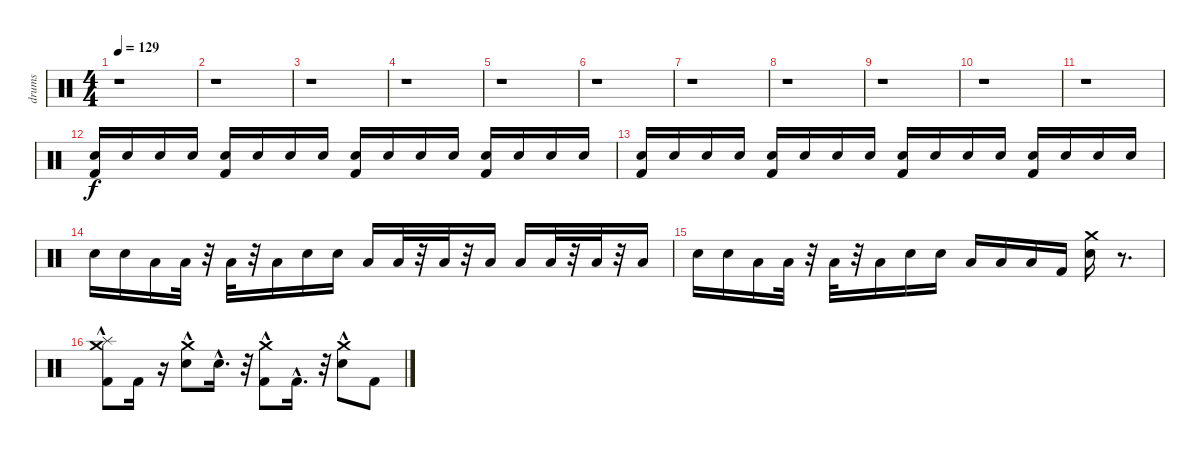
\track ("drums" "drums") {instrument percussion}
\staff {score}
\articulation defaults
\ts (4 4)
\tempo 129
\clef neutral
\ks c
r.1{dy f} |
r.1 |
r.1 |
r.1 |
r.1 |
r.1 |
r.1 |
r.1 |
r.1 |
r.1 |
r.1 |
("Kick (hit) 2" "Snare (hit) 2").16 "Snare (hit) 2".16 "Snare (hit) 2".16 "Snare (hit) 2".16 ("Kick (hit) 2" "Snare (hit) 2").16 "Snare (hit) 2".16 "Snare (hit) 2".16 "Snare (hit) 2".16 ("Kick (hit) 2" "Snare (hit) 2").16 "Snare (hit) 2".16 "Snare (hit) 2".16 "Snare (hit) 2".16 ("Kick (hit) 2" "Snare (hit) 2").16 "Snare (hit) 2".16 "Snare (hit) 2".16 "Snare (hit) 2".16 |
("Kick (hit) 2" "Snare (hit) 2").16 "Snare (hit) 2".16 "Snare (hit) 2".16 "Snare (hit) 2".16 ("Kick (hit) 2" "Snare (hit) 2").16 "Snare (hit) 2".16 "Snare (hit) 2".16 "Snare (hit) 2".16 ("Kick (hit) 2" "Snare (hit) 2").16 "Snare (hit) 2".16 "Snare (hit) 2".16 "Snare (hit) 2".16 ("Kick (hit) 2" "Snare (hit) 2").16 "Snare (hit) 2".16 "Snare (hit) 2".16 "Snare (hit) 2".16 |
"Snare (hit) 2".16 "Snare (hit) 2".16 "Low Tom (hit)".16 "Low Tom (hit)".32 r.32 "Low Tom (hit)".32 r.32 "Low Tom (hit)".16 "Snare (hit) 2".16 "Snare (hit) 2".16 "Low Tom (hit)".16 "Low Tom (hit)".32 r.32 "Low Tom (hit)".32 r.32 "Low Tom (hit)".16 "Low Floor Tom (hit)".16 "Low Floor Tom (hit)".32 r.32 "Low Floor Tom (hit)".32 r.32 "Low Floor Tom (hit)".16 |
"Snare (hit) 2".16 "Snare (hit) 2".16 "Low Tom (hit)".16 "Low Tom (hit)".32 r.32 "Low Tom (hit)".32 r.32 "Low Tom (hit)".16 "Snare (hit) 2".16 "Snare (hit) 2".16 "Low Tom (hit)".16 "Low Tom (hit)".16 "Low Floor Tom (hit)".16 "Kick (hit) 2".16 ("Snare (hit) 2" "Crash medium (hit)").16 r.8{d} |
("Kick (hit) 2" "Splash (hit)"{hac} "Crash medium (hit)"{hac}).8 "Kick (hit) 2".16 r.16 ("Snare (hit) 2" "Crash medium (hit)"{hac}).8 "Snare (hit) 2"{hac}.16{d} r.32 ("Kick (hit) 2"{hac} "Crash medium (hit)"{hac}).8 "Kick (hit) 2"{hac}.16{d} r.32 ("Snare (hit) 2" "Crash medium (hit)"{hac}).8 "Kick (hit) 2".8
